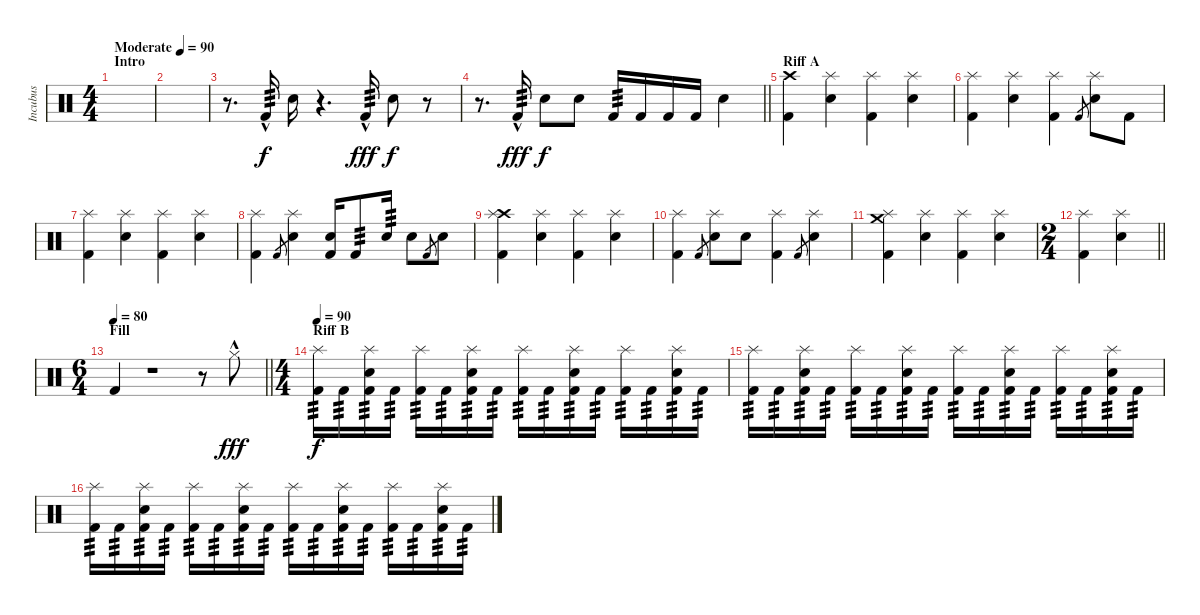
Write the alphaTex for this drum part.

\track ("Incubus" "Incubus") {instrument percussion}
\staff {score}
\articulation defaults
\ts (4 4)
\section ("" "Intro")
\tempo (90 "Moderate")
\clef neutral
\ks c
|
|
r.8{d} "Kick (hit) 2"{hac}.16{tp 3} "Snare (hit) 2".16{dy f} r.4{d} "Kick (hit) 2"{hac}.16{tp 3 dy fff} "Snare (hit) 2".8{dy f} r.8 |
\barLineRight lightlight
r.8{d} "Kick (hit) 2"{hac}.16{tp 3 dy fff} "Snare (hit) 2".8{dy f} "Snare (hit) 2".8 "Kick (hit) 2".16{tp 3} "Kick (hit) 2".16 "Kick (hit) 2".16 "Kick (hit) 2".16 "Snare (hit) 2".4 |
\section ("" "Riff A")
("Crash high (hit)" "Kick (hit) 2").4 ("Splash (hit)" "Snare (hit) 2").4 ("Splash (hit)" "Kick (hit) 2").4 ("Splash (hit)" "Snare (hit) 2").4 |
("Splash (hit)" "Kick (hit) 2").4 ("Splash (hit)" "Snare (hit) 2").4 ("Splash (hit)" "Kick (hit) 2").4 "Kick (hit) 2".8{gr} ("Splash (hit)" "Snare (hit) 2").8 "Kick (hit) 2".8 |
("Splash (hit)" "Kick (hit) 2").4 ("Splash (hit)" "Snare (hit) 2").4 ("Splash (hit)" "Kick (hit) 2").4 ("Splash (hit)" "Snare (hit) 2").4 |
("Splash (hit)" "Kick (hit) 2").4 "Kick (hit) 2".8{gr} ("Splash (hit)" "Snare (hit) 2").4 ("Snare (hit) 2" "Kick (hit) 2").16 "Kick (hit) 2".8{tp 3} "Snare (hit) 2".16{tp 3} "Snare (hit) 2".8 "Kick (hit) 2".8{gr} "Snare (hit) 2".8 |
("Crash high (hit)" "Splash (hit)" "Kick (hit) 2").4 ("Splash (hit)" "Snare (hit) 2").4 ("Splash (hit)" "Kick (hit) 2").4 ("Splash (hit)" "Snare (hit) 2").4 |
("Splash (hit)" "Kick (hit) 2").4 "Kick (hit) 2".8{gr} ("Splash (hit)" "Snare (hit) 2").8 "Snare (hit) 2".8 ("Splash (hit)" "Kick (hit) 2").4 "Kick (hit) 2".8{gr} ("Splash (hit)" "Snare (hit) 2").4 |
("Crash medium (hit)" "Splash (hit)" "Kick (hit) 2").4 ("Splash (hit)" "Snare (hit) 2").4 ("Splash (hit)" "Kick (hit) 2").4 ("Splash (hit)" "Snare (hit) 2").4 |
\ts (2 4)
\barLineRight lightlight
("Splash (hit)" "Kick (hit) 2").4 ("Splash (hit)" "Snare (hit) 2").4 |
\ts (6 4)
\section ("" "Fill")
\tempo 80
\barLineRight lightlight "Kick (hit) 2".4
r.1 r.8 "Hi-Hat (closed)"{hac}.8{dy fff} |
\ts (4 4)
\section ("" "Riff B")
\tempo 90
("Splash (hit)" "Kick (hit) 2").16{tp 3 dy f} "Kick (hit) 2".16{tp 3} ("Splash (hit)" "Snare (hit) 2" "Kick (hit) 2").16{tp 3} "Kick (hit) 2".16{tp 3} ("Splash (hit)" "Kick (hit) 2").16{tp 3} "Kick (hit) 2".16{tp 3} ("Splash (hit)" "Snare (hit) 2" "Kick (hit) 2").16{tp 3} "Kick (hit) 2".16{tp 3} ("Splash (hit)" "Kick (hit) 2").16{tp 3} "Kick (hit) 2".16{tp 3} ("Splash (hit)" "Snare (hit) 2" "Kick (hit) 2").16{tp 3} "Kick (hit) 2".16{tp 3} ("Splash (hit)" "Kick (hit) 2").16{tp 3} "Kick (hit) 2".16{tp 3} ("Splash (hit)" "Snare (hit) 2" "Kick (hit) 2").16{tp 3} "Kick (hit) 2".16{tp 3} |
("Splash (hit)" "Kick (hit) 2").16{tp 3} "Kick (hit) 2".16{tp 3} ("Splash (hit)" "Snare (hit) 2" "Kick (hit) 2").16{tp 3} "Kick (hit) 2".16{tp 3} ("Splash (hit)" "Kick (hit) 2").16{tp 3} "Kick (hit) 2".16{tp 3} ("Splash (hit)" "Snare (hit) 2" "Kick (hit) 2").16{tp 3} "Kick (hit) 2".16{tp 3} ("Splash (hit)" "Kick (hit) 2").16{tp 3} "Kick (hit) 2".16{tp 3} ("Splash (hit)" "Snare (hit) 2" "Kick (hit) 2").16{tp 3} "Kick (hit) 2".16{tp 3} ("Splash (hit)" "Kick (hit) 2").16{tp 3} "Kick (hit) 2".16{tp 3} ("Splash (hit)" "Snare (hit) 2" "Kick (hit) 2").16{tp 3} "Kick (hit) 2".16{tp 3} |
("Splash (hit)" "Kick (hit) 2").16{tp 3} "Kick (hit) 2".16{tp 3} ("Splash (hit)" "Snare (hit) 2" "Kick (hit) 2").16{tp 3} "Kick (hit) 2".16{tp 3} ("Splash (hit)" "Kick (hit) 2").16{tp 3} "Kick (hit) 2".16{tp 3} ("Splash (hit)" "Snare (hit) 2" "Kick (hit) 2").16{tp 3} "Kick (hit) 2".16{tp 3} ("Splash (hit)" "Kick (hit) 2").16{tp 3} "Kick (hit) 2".16{tp 3} ("Splash (hit)" "Snare (hit) 2" "Kick (hit) 2").16{tp 3} "Kick (hit) 2".16{tp 3} ("Splash (hit)" "Kick (hit) 2").16{tp 3} "Kick (hit) 2".16{tp 3} ("Splash (hit)" "Snare (hit) 2" "Kick (hit) 2").16{tp 3} "Kick (hit) 2".16{tp 3}
